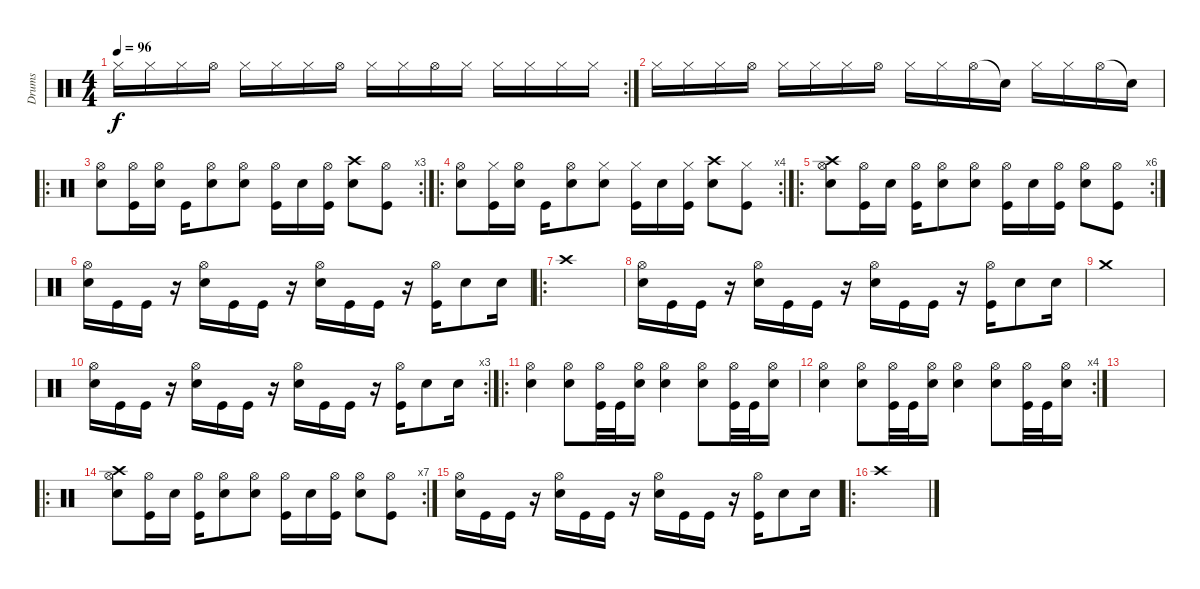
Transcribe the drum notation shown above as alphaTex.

\track ("Drums" "Drums") {instrument percussion}
\staff {score}
\articulation defaults
\rc 2
\ts (4 4)
\tempo 96
\clef neutral
\ks c "Hi-Hat (closed)".16{dy f} "Hi-Hat (closed)".16 "Hi-Hat (closed)".16 "Hi-Hat (open)".16 "Hi-Hat (closed)".16 "Hi-Hat (closed)".16 "Hi-Hat (closed)".16 "Hi-Hat (open)".16 "Hi-Hat (closed)".16 "Hi-Hat (closed)".16 "Hi-Hat (open)".16 "Hi-Hat (closed)".16 "Hi-Hat (closed)".16 "Hi-Hat (closed)".16 "Hi-Hat (closed)".16 "Hi-Hat (closed)".16
|
"Hi-Hat (closed)".16 "Hi-Hat (closed)".16 "Hi-Hat (closed)".16 "Hi-Hat (open)".16 "Hi-Hat (closed)".16 "Hi-Hat (closed)".16 "Hi-Hat (closed)".16 "Hi-Hat (open)".16 "Hi-Hat (closed)".16 "Hi-Hat (closed)".16 "Hi-Hat (open)".16 "Snare (hit)"{t}.16 "Hi-Hat (closed)".16 "Hi-Hat (closed)".16 "Hi-Hat (open)".16 "Snare (hit)"{t}.16 |
\ro
\rc 3
("Hi-Hat (open)" "Snare (hit) 2").8 ("Hi-Hat (open)" "Kick (hit)").16 ("Hi-Hat (open)" "Snare (hit) 2").16 "Kick (hit)".16 ("Hi-Hat (open)" "Snare (hit) 2").8 ("Hi-Hat (open)" "Snare (hit) 2").8 ("Hi-Hat (open)" "Kick (hit)").16 "Snare (hit) 2".16 ("Hi-Hat (open)" "Kick (hit)").16 ("Crash high (hit)" "Snare (hit) 2").8 ("Hi-Hat (open)" "Kick (hit)").8 |
\ro
\rc 4
("Hi-Hat (open)" "Snare (hit) 2").8 ("Hi-Hat (closed)" "Kick (hit)").16 ("Hi-Hat (open)" "Snare (hit) 2").16 "Kick (hit)".16 ("Hi-Hat (open)" "Snare (hit) 2").8 ("Hi-Hat (closed)" "Snare (hit) 2").8 ("Hi-Hat (closed)" "Kick (hit)").16 "Snare (hit) 2".16 ("Hi-Hat (closed)" "Kick (hit)").16 ("Crash high (hit)" "Snare (hit) 2").8 ("Hi-Hat (closed)" "Kick (hit)").8 |
\ro
\rc 6
("Hi-Hat (open)" "Crash high (hit)" "Snare (hit) 2").8 ("Hi-Hat (open)" "Kick (hit)").16 "Snare (hit) 2".16 ("Hi-Hat (open)" "Kick (hit)").16 ("Hi-Hat (open)" "Snare (hit) 2").8 ("Hi-Hat (open)" "Snare (hit) 2").8 ("Hi-Hat (open)" "Kick (hit)").16 "Snare (hit) 2".16 ("Hi-Hat (open)" "Kick (hit)").16 ("Hi-Hat (open)" "Snare (hit) 2").8 ("Hi-Hat (open)" "Kick (hit)").8 |
("Hi-Hat (open)" "Snare (hit) 2").16 "Kick (hit)".16 "Kick (hit)".16 r.16 ("Hi-Hat (open)" "Snare (hit) 2").16 "Kick (hit)".16 "Kick (hit)".16 r.16 ("Hi-Hat (open)" "Snare (hit) 2").16 "Kick (hit)".16 "Kick (hit)".16 r.16 ("Hi-Hat (open)" "Kick (hit)").16 "Snare (hit) 2".8 "Snare (hit) 2".16 |
\ro "Crash high (hit)".1
|
("Hi-Hat (open)" "Snare (hit) 2").16 "Kick (hit)".16 "Kick (hit)".16 r.16 ("Hi-Hat (open)" "Snare (hit) 2").16 "Kick (hit)".16 "Kick (hit)".16 r.16 ("Hi-Hat (open)" "Snare (hit) 2").16 "Kick (hit)".16 "Kick (hit)".16 r.16 ("Hi-Hat (open)" "Kick (hit)").16 "Snare (hit) 2".8 "Snare (hit) 2".16 |
"Crash medium (hit)".1 |
\rc 3
("Hi-Hat (open)" "Snare (hit) 2").16 "Kick (hit)".16 "Kick (hit)".16 r.16 ("Hi-Hat (open)" "Snare (hit) 2").16 "Kick (hit)".16 "Kick (hit)".16 r.16 ("Hi-Hat (open)" "Snare (hit) 2").16 "Kick (hit)".16 "Kick (hit)".16 r.16 ("Hi-Hat (open)" "Kick (hit)").16 "Snare (hit) 2".8 "Snare (hit) 2".16 |
\ro
("Hi-Hat (open)" "Snare (hit) 2").4 ("Hi-Hat (open)" "Snare (hit) 2").8 ("Hi-Hat (open)" "Kick (hit)").32 "Kick (hit)".32 ("Hi-Hat (open)" "Snare (hit) 2").16 ("Hi-Hat (open)" "Snare (hit) 2").4 ("Hi-Hat (open)" "Snare (hit) 2").8 ("Hi-Hat (open)" "Kick (hit)").32 "Kick (hit)".32 ("Hi-Hat (open)" "Snare (hit) 2").16 |
\rc 4
("Hi-Hat (open)" "Snare (hit) 2").4 ("Hi-Hat (open)" "Snare (hit) 2").8 ("Hi-Hat (open)" "Kick (hit)").32 "Kick (hit)".32 ("Hi-Hat (open)" "Snare (hit) 2").16 ("Hi-Hat (open)" "Snare (hit) 2").4 ("Hi-Hat (open)" "Snare (hit) 2").8 ("Hi-Hat (open)" "Kick (hit)").32 "Kick (hit)".32 ("Hi-Hat (open)" "Snare (hit) 2").16 |
|
\ro
\rc 7
("Hi-Hat (open)" "Crash high (hit)" "Snare (hit) 2").8 ("Hi-Hat (open)" "Kick (hit)").16 "Snare (hit) 2".16 ("Hi-Hat (open)" "Kick (hit)").16 ("Hi-Hat (open)" "Snare (hit) 2").8 ("Hi-Hat (open)" "Snare (hit) 2").8 ("Hi-Hat (open)" "Kick (hit)").16 "Snare (hit) 2".16 ("Hi-Hat (open)" "Kick (hit)").16 ("Hi-Hat (open)" "Snare (hit) 2").8 ("Hi-Hat (open)" "Kick (hit)").8 |
("Hi-Hat (open)" "Snare (hit) 2").16 "Kick (hit)".16 "Kick (hit)".16 r.16 ("Hi-Hat (open)" "Snare (hit) 2").16 "Kick (hit)".16 "Kick (hit)".16 r.16 ("Hi-Hat (open)" "Snare (hit) 2").16 "Kick (hit)".16 "Kick (hit)".16 r.16 ("Hi-Hat (open)" "Kick (hit)").16 "Snare (hit) 2".8 "Snare (hit) 2".16 |
\ro "Crash high (hit)".1
